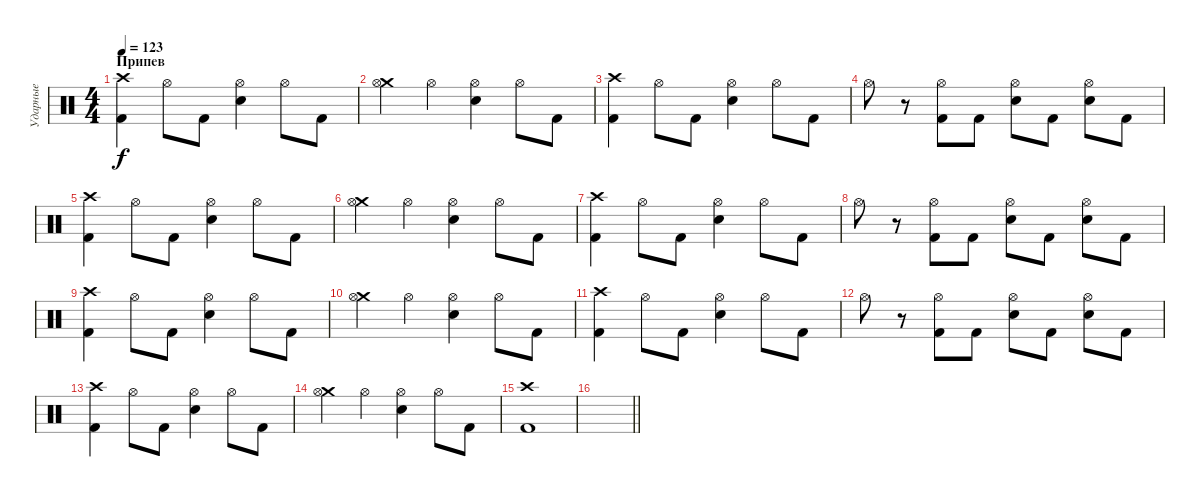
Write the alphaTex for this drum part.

\track ("Ударные" "Ударные") {instrument percussion}
\staff {score}
\articulation defaults
\ts (4 4)
\section ("" "Припев")
\tempo 123
\clef neutral
\ks c
("Kick (hit) 2" "Crash high (hit)").4{dy f} "Hi-Hat (open)".8 "Kick (hit) 2".8 ("Electric Snare (hit)" "Hi-Hat (open)").4 "Hi-Hat (open)".8 "Kick (hit) 2".8 |
("Crash medium (hit)" "Hi-Hat (open)").4 "Hi-Hat (open)".4 ("Electric Snare (hit)" "Hi-Hat (open)").4 "Hi-Hat (open)".8 "Kick (hit) 2".8 |
("Kick (hit) 2" "Crash high (hit)").4 "Hi-Hat (open)".8 "Kick (hit) 2".8 ("Electric Snare (hit)" "Hi-Hat (open)").4 "Hi-Hat (open)".8 "Kick (hit) 2".8 |
"Hi-Hat (open)".8 r.8 ("Kick (hit) 2" "Hi-Hat (open)").8 "Kick (hit) 2".8 ("Electric Snare (hit)" "Hi-Hat (open)").8 "Kick (hit) 2".8 ("Electric Snare (hit)" "Hi-Hat (open)").8 "Kick (hit) 2".8 |
("Kick (hit) 2" "Crash high (hit)").4 "Hi-Hat (open)".8 "Kick (hit) 2".8 ("Electric Snare (hit)" "Hi-Hat (open)").4 "Hi-Hat (open)".8 "Kick (hit) 2".8 |
("Crash medium (hit)" "Hi-Hat (open)").4 "Hi-Hat (open)".4 ("Electric Snare (hit)" "Hi-Hat (open)").4 "Hi-Hat (open)".8 "Kick (hit) 2".8 |
("Kick (hit) 2" "Crash high (hit)").4 "Hi-Hat (open)".8 "Kick (hit) 2".8 ("Electric Snare (hit)" "Hi-Hat (open)").4 "Hi-Hat (open)".8 "Kick (hit) 2".8 |
"Hi-Hat (open)".8 r.8 ("Kick (hit) 2" "Hi-Hat (open)").8 "Kick (hit) 2".8 ("Electric Snare (hit)" "Hi-Hat (open)").8 "Kick (hit) 2".8 ("Electric Snare (hit)" "Hi-Hat (open)").8 "Kick (hit) 2".8 |
("Kick (hit) 2" "Crash high (hit)").4 "Hi-Hat (open)".8 "Kick (hit) 2".8 ("Electric Snare (hit)" "Hi-Hat (open)").4 "Hi-Hat (open)".8 "Kick (hit) 2".8 |
("Crash medium (hit)" "Hi-Hat (open)").4 "Hi-Hat (open)".4 ("Electric Snare (hit)" "Hi-Hat (open)").4 "Hi-Hat (open)".8 "Kick (hit) 2".8 |
("Kick (hit) 2" "Crash high (hit)").4 "Hi-Hat (open)".8 "Kick (hit) 2".8 ("Electric Snare (hit)" "Hi-Hat (open)").4 "Hi-Hat (open)".8 "Kick (hit) 2".8 |
"Hi-Hat (open)".8 r.8 ("Kick (hit) 2" "Hi-Hat (open)").8 "Kick (hit) 2".8 ("Electric Snare (hit)" "Hi-Hat (open)").8 "Kick (hit) 2".8 ("Electric Snare (hit)" "Hi-Hat (open)").8 "Kick (hit) 2".8 |
("Kick (hit) 2" "Crash high (hit)").4 "Hi-Hat (open)".8 "Kick (hit) 2".8 ("Electric Snare (hit)" "Hi-Hat (open)").4 "Hi-Hat (open)".8 "Kick (hit) 2".8 |
("Crash medium (hit)" "Hi-Hat (open)").4 "Hi-Hat (open)".4 ("Electric Snare (hit)" "Hi-Hat (open)").4 "Hi-Hat (open)".8 "Kick (hit) 2".8 |
("Kick (hit) 2" "Crash high (hit)").1 |
\barLineRight lightlight
